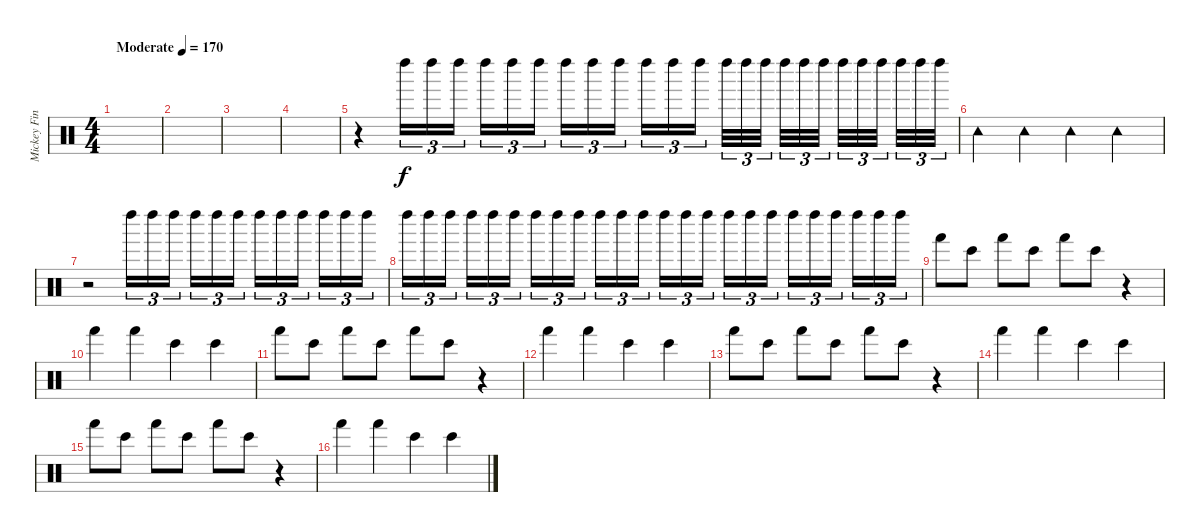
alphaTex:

\track ("Mickey Finn" "Mickey Fin") {instrument percussion}
\staff {score}
\articulation defaults
\ts (4 4)
\tempo (170 "Moderate")
\clef neutral
\ks c
|
|
|
|
r.4 "Left Maraca (hit)".16{tu (3 2)} "Left Maraca (hit)".16{tu (3 2)} "Left Maraca (hit)".16{tu (3 2) beam splitsecondary} "Left Maraca (hit)".16{tu (3 2)} "Left Maraca (hit)".16{tu (3 2)} "Left Maraca (hit)".16{tu (3 2)} "Left Maraca (hit)".16{tu (3 2)} "Left Maraca (hit)".16{tu (3 2)} "Left Maraca (hit)".16{tu (3 2) beam splitsecondary} "Left Maraca (hit)".16{tu (3 2)} "Left Maraca (hit)".16{tu (3 2)} "Left Maraca (hit)".16{tu (3 2)} "Left Maraca (hit)".32{tu (3 2)} "Left Maraca (hit)".32{tu (3 2)} "Left Maraca (hit)".32{tu (3 2) beam splitsecondary} "Left Maraca (hit)".32{tu (3 2)} "Left Maraca (hit)".32{tu (3 2)} "Left Maraca (hit)".32{tu (3 2) beam splitsecondary} "Left Maraca (hit)".32{tu (3 2)} "Left Maraca (hit)".32{tu (3 2)} "Left Maraca (hit)".32{tu (3 2) beam splitsecondary} "Left Maraca (hit)".32{tu (3 2)} "Left Maraca (hit)".32{tu (3 2)} "Left Maraca (hit)".32{tu (3 2)} |
"Tambourine (hit)".4 "Tambourine (hit)".4 "Tambourine (hit)".4 "Tambourine (hit)".4 |
r.2 "Left Maraca (hit)".16{tu (3 2)} "Left Maraca (hit)".16{tu (3 2)} "Left Maraca (hit)".16{tu (3 2) beam splitsecondary} "Left Maraca (hit)".16{tu (3 2)} "Left Maraca (hit)".16{tu (3 2)} "Left Maraca (hit)".16{tu (3 2)} "Left Maraca (hit)".16{tu (3 2)} "Left Maraca (hit)".16{tu (3 2)} "Left Maraca (hit)".16{tu (3 2) beam splitsecondary} "Left Maraca (hit)".16{tu (3 2)} "Left Maraca (hit)".16{tu (3 2)} "Left Maraca (hit)".16{tu (3 2)} |
"Left Maraca (hit)".16{tu (3 2)} "Left Maraca (hit)".16{tu (3 2)} "Left Maraca (hit)".16{tu (3 2) beam splitsecondary} "Left Maraca (hit)".16{tu (3 2)} "Left Maraca (hit)".16{tu (3 2)} "Left Maraca (hit)".16{tu (3 2)} "Left Maraca (hit)".16{tu (3 2)} "Left Maraca (hit)".16{tu (3 2)} "Left Maraca (hit)".16{tu (3 2) beam splitsecondary} "Left Maraca (hit)".16{tu (3 2)} "Left Maraca (hit)".16{tu (3 2)} "Left Maraca (hit)".16{tu (3 2)} "Left Maraca (hit)".16{tu (3 2)} "Left Maraca (hit)".16{tu (3 2)} "Left Maraca (hit)".16{tu (3 2) beam splitsecondary} "Left Maraca (hit)".16{tu (3 2)} "Left Maraca (hit)".16{tu (3 2)} "Left Maraca (hit)".16{tu (3 2)} "Left Maraca (hit)".16{tu (3 2)} "Left Maraca (hit)".16{tu (3 2)} "Left Maraca (hit)".16{tu (3 2) beam splitsecondary} "Left Maraca (hit)".16{tu (3 2)} "Left Maraca (hit)".16{tu (3 2)} "Left Maraca (hit)".16{tu (3 2)} |
"Hand (hit)".8 "Bongo High (hit)".8 "Hand (hit)".8 "Bongo High (hit)".8 "Hand (hit)".8 "Bongo High (hit)".8 r.4 |
"Hand (hit)".4 "Hand (hit)".4 "Bongo High (hit)".4 "Bongo High (hit)".4 |
"Hand (hit)".8 "Bongo High (hit)".8 "Hand (hit)".8 "Bongo High (hit)".8 "Hand (hit)".8 "Bongo High (hit)".8 r.4 |
"Hand (hit)".4 "Hand (hit)".4 "Bongo High (hit)".4 "Bongo High (hit)".4 |
"Hand (hit)".8 "Bongo High (hit)".8 "Hand (hit)".8 "Bongo High (hit)".8 "Hand (hit)".8 "Bongo High (hit)".8 r.4 |
"Hand (hit)".4 "Hand (hit)".4 "Bongo High (hit)".4 "Bongo High (hit)".4 |
"Hand (hit)".8 "Bongo High (hit)".8 "Hand (hit)".8 "Bongo High (hit)".8 "Hand (hit)".8 "Bongo High (hit)".8 r.4 |
"Hand (hit)".4 "Hand (hit)".4 "Bongo High (hit)".4 "Bongo High (hit)".4
